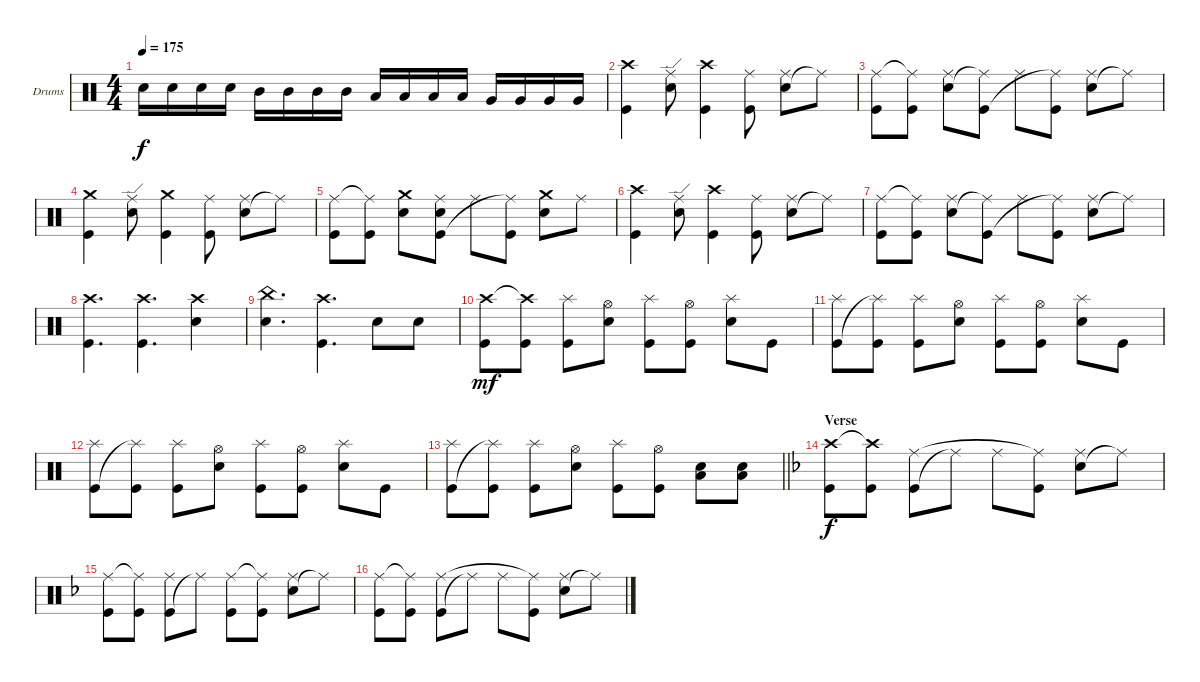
\bracketExtendMode groupsimilarinstruments
\firstSystemTrackNameOrientation horizontal
\otherSystemsTrackNameOrientation horizontal
\track ("Drumkit" "Drums") {instrument percussion}
\staff {score}
\articulation defaults
\ts (4 4)
\tempo 175
\clef neutral
\ks c "Snare (hit) 2".16{dy f} "Snare (hit) 2".16 "Snare (hit) 2".16 "Snare (hit) 2".16 "Mid Tom (hit)".16 "Mid Tom (hit)".16 "Mid Tom (hit)".16 "Mid Tom (hit)".16 "Low Tom (hit)".16 "Low Tom (hit)".16 "Low Tom (hit)".16 "Low Tom (hit)".16 "Very Low Tom (hit)".16 "Very Low Tom (hit)".16 "Very Low Tom (hit)".16 "Very Low Tom (hit)".16
|
("Crash high (hit)" "Kick (hit)").4 ("Ride (edge)" "Snare (hit) 2").8 ("Kick (hit)" "Crash high (hit)").4 ("Kick (hit)" "Ride (middle)").8 ("Snare (hit) 2" "Ride (middle)").8 "Ride (middle)"{t}.8 |
("Kick (hit)" "Ride (middle)").8 ("Kick (hit)" "Ride (middle)"{t}).8 ("Snare (hit) 2" "Ride (middle)").8 ("Ride (middle)"{t} "Kick (hit)").8 "Ride (middle)".8 ("Kick (hit)" "Ride (middle)"{t}).8 ("Snare (hit) 2" "Ride (middle)").8 "Ride (middle)"{t}.8 |
("Kick (hit)" "Crash medium (hit)").4 ("Ride (edge)" "Snare (hit) 2").8 ("Kick (hit)" "Crash medium (hit)").4 ("Kick (hit)" "Ride (middle)").8 ("Snare (hit) 2" "Ride (middle)").8 "Ride (middle)"{t}.8 |
("Kick (hit)" "Ride (middle)").8 ("Kick (hit)" "Ride (middle)"{t}).8 ("Snare (hit) 2" "Crash medium (hit)").8 ("Ride (middle)" "Kick (hit)" "Snare (hit) 2").8 "Ride (middle)".8 ("Kick (hit)" "Ride (middle)"{t}).8 ("Snare (hit) 2" "Crash medium (hit)").8 "Ride (middle)".8 |
("Crash high (hit)" "Kick (hit)").4 ("Ride (edge)" "Snare (hit) 2").8 ("Kick (hit)" "Crash high (hit)").4 ("Kick (hit)" "Ride (middle)").8 ("Snare (hit) 2" "Ride (middle)").8 "Ride (middle)"{t}.8 |
("Kick (hit)" "Ride (middle)").8 ("Kick (hit)" "Ride (middle)"{t}).8 ("Snare (hit) 2" "Ride (middle)").8 ("Ride (middle)"{t} "Kick (hit)").8 "Ride (middle)".8 ("Kick (hit)" "Ride (middle)"{t}).8 ("Snare (hit) 2" "Ride (middle)").8 "Ride (middle)"{t}.8 |
("Crash high (hit)" "Kick (hit)").4{d} ("Kick (hit)" "Crash high (hit)").4{d} ("Snare (hit) 2" "Crash high (hit)").4 |
("China (hit)" "Snare (hit) 2").4{d} ("Crash high (hit)" "Kick (hit)").4{d} "Snare (hit) 2".8 "Snare (hit) 2".8 |
("Kick (hit)" "Crash high (hit)").8{dy mf} ("Kick (hit)" "Crash high (hit)"{t}).8 ("Kick (hit)" "Splash (hit)").8 ("Snare (hit) 2" "Hi-Hat (open)").8 ("Kick (hit)" "Splash (hit)").8 ("Kick (hit)" "Hi-Hat (open)").8 ("Snare (hit) 2" "Splash (hit)").8 "Kick (hit)".8 |
("Kick (hit)" "Splash (hit)").8 ("Splash (hit)"{t} "Kick (hit)").8 ("Kick (hit)" "Splash (hit)").8 ("Snare (hit) 2" "Hi-Hat (open)").8 ("Kick (hit)" "Splash (hit)").8 ("Kick (hit)" "Hi-Hat (open)").8 ("Snare (hit) 2" "Splash (hit)").8 "Kick (hit)".8 |
("Kick (hit)" "Splash (hit)").8 ("Splash (hit)"{t} "Kick (hit)").8 ("Kick (hit)" "Splash (hit)").8 ("Snare (hit) 2" "Hi-Hat (open)").8 ("Kick (hit)" "Splash (hit)").8 ("Kick (hit)" "Hi-Hat (open)").8 ("Snare (hit) 2" "Splash (hit)").8 "Kick (hit)".8 |
\barLineRight lightlight
("Kick (hit)" "Splash (hit)").8 ("Splash (hit)"{t} "Kick (hit)").8 ("Kick (hit)" "Splash (hit)").8 ("Snare (hit) 2" "Hi-Hat (open)").8 ("Kick (hit)" "Splash (hit)").8 ("Kick (hit)" "Hi-Hat (open)").8 ("Snare (hit) 2" "Low Tom (hit)").8 ("Snare (hit) 2" "Low Tom (hit)").8 |
\section ("" "Verse")
\ks f
("Kick (hit)" "Crash high (hit)").8{dy f} ("Kick (hit)" "Crash high (hit)"{t}).8 ("Kick (hit)" "Ride (middle)").8 "Ride (middle)"{t}.8 "Ride (middle)".8 ("Kick (hit)" "Ride (middle)"{t}).8 ("Snare (hit) 2" "Ride (middle)").8 "Ride (middle)"{t}.8 |
("Kick (hit)" "Ride (middle)").8 ("Kick (hit)" "Ride (middle)"{t}).8 ("Kick (hit)" "Ride (middle)").8 "Ride (middle)"{t}.8 ("Kick (hit)" "Ride (middle)").8 ("Kick (hit)" "Ride (middle)"{t}).8 ("Snare (hit) 2" "Ride (middle)").8 "Ride (middle)"{t}.8 |
("Kick (hit)" "Ride (middle)").8 ("Kick (hit)" "Ride (middle)"{t}).8 ("Kick (hit)" "Ride (middle)").8 "Ride (middle)"{t}.8 "Ride (middle)".8 ("Kick (hit)" "Ride (middle)"{t}).8 ("Snare (hit) 2" "Ride (middle)").8 "Ride (middle)"{t}.8
